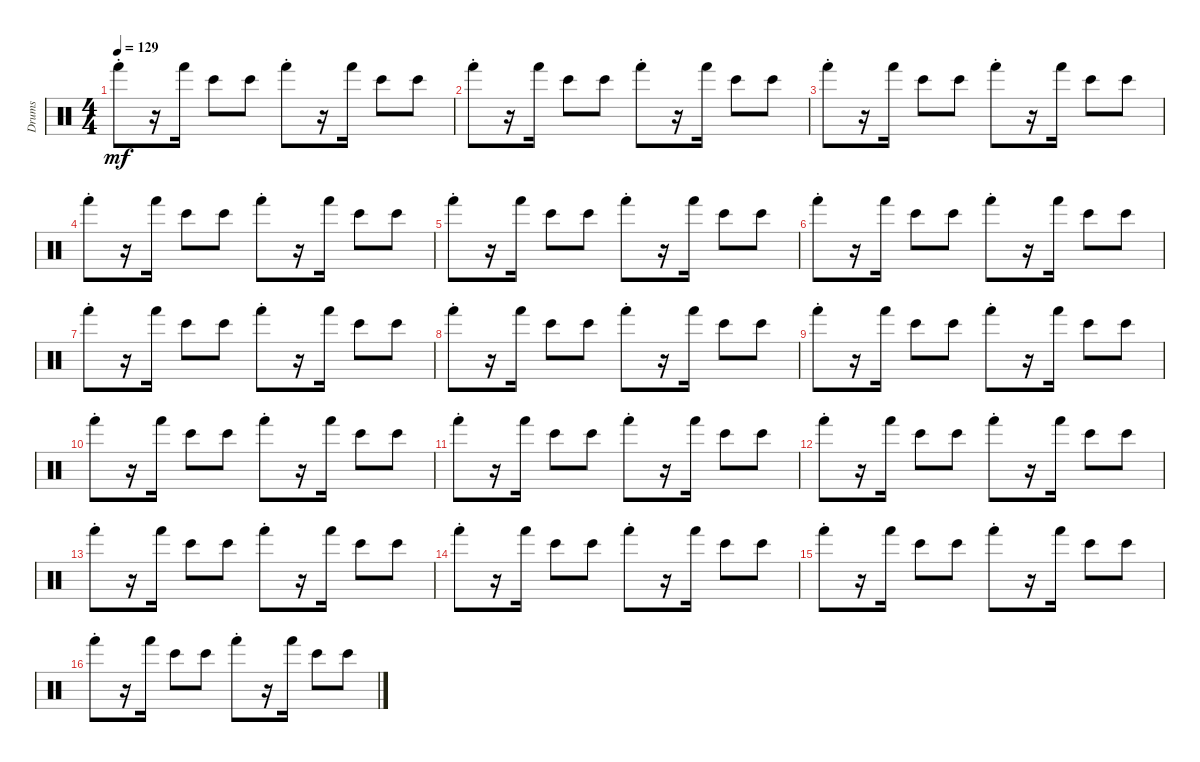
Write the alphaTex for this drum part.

\track ("Drums" "Drums") {instrument percussion}
\staff {score}
\articulation defaults
\ts (4 4)
\tempo 129
\clef neutral
\ks c "Hand (hit)"{st}.8{dy mf}
r.16 "Hand (hit)".16 "Bongo High (hit)".8 "Bongo High (hit)".8 "Hand (hit)"{st}.8 r.16 "Hand (hit)".16 "Bongo High (hit)".8 "Bongo High (hit)".8 |
"Hand (hit)"{st}.8 r.16 "Hand (hit)".16 "Bongo High (hit)".8 "Bongo High (hit)".8 "Hand (hit)"{st}.8 r.16 "Hand (hit)".16 "Bongo High (hit)".8 "Bongo High (hit)".8 |
"Hand (hit)"{st}.8 r.16 "Hand (hit)".16 "Bongo High (hit)".8 "Bongo High (hit)".8 "Hand (hit)"{st}.8 r.16 "Hand (hit)".16 "Bongo High (hit)".8 "Bongo High (hit)".8 |
"Hand (hit)"{st}.8 r.16 "Hand (hit)".16 "Bongo High (hit)".8 "Bongo High (hit)".8 "Hand (hit)"{st}.8 r.16 "Hand (hit)".16 "Bongo High (hit)".8 "Bongo High (hit)".8 |
"Hand (hit)"{st}.8 r.16 "Hand (hit)".16 "Bongo High (hit)".8 "Bongo High (hit)".8 "Hand (hit)"{st}.8 r.16 "Hand (hit)".16 "Bongo High (hit)".8 "Bongo High (hit)".8 |
"Hand (hit)"{st}.8 r.16 "Hand (hit)".16 "Bongo High (hit)".8 "Bongo High (hit)".8 "Hand (hit)"{st}.8 r.16 "Hand (hit)".16 "Bongo High (hit)".8 "Bongo High (hit)".8 |
"Hand (hit)"{st}.8 r.16 "Hand (hit)".16 "Bongo High (hit)".8 "Bongo High (hit)".8 "Hand (hit)"{st}.8 r.16 "Hand (hit)".16 "Bongo High (hit)".8 "Bongo High (hit)".8 |
"Hand (hit)"{st}.8 r.16 "Hand (hit)".16 "Bongo High (hit)".8 "Bongo High (hit)".8 "Hand (hit)"{st}.8 r.16 "Hand (hit)".16 "Bongo High (hit)".8 "Bongo High (hit)".8 |
"Hand (hit)"{st}.8 r.16 "Hand (hit)".16 "Bongo High (hit)".8 "Bongo High (hit)".8 "Hand (hit)"{st}.8 r.16 "Hand (hit)".16 "Bongo High (hit)".8 "Bongo High (hit)".8 |
"Hand (hit)"{st}.8 r.16 "Hand (hit)".16 "Bongo High (hit)".8 "Bongo High (hit)".8 "Hand (hit)"{st}.8 r.16 "Hand (hit)".16 "Bongo High (hit)".8 "Bongo High (hit)".8 |
"Hand (hit)"{st}.8 r.16 "Hand (hit)".16 "Bongo High (hit)".8 "Bongo High (hit)".8 "Hand (hit)"{st}.8 r.16 "Hand (hit)".16 "Bongo High (hit)".8 "Bongo High (hit)".8 |
"Hand (hit)"{st}.8 r.16 "Hand (hit)".16 "Bongo High (hit)".8 "Bongo High (hit)".8 "Hand (hit)"{st}.8 r.16 "Hand (hit)".16 "Bongo High (hit)".8 "Bongo High (hit)".8 |
"Hand (hit)"{st}.8 r.16 "Hand (hit)".16 "Bongo High (hit)".8 "Bongo High (hit)".8 "Hand (hit)"{st}.8 r.16 "Hand (hit)".16 "Bongo High (hit)".8 "Bongo High (hit)".8 |
"Hand (hit)"{st}.8 r.16 "Hand (hit)".16 "Bongo High (hit)".8 "Bongo High (hit)".8 "Hand (hit)"{st}.8 r.16 "Hand (hit)".16 "Bongo High (hit)".8 "Bongo High (hit)".8 |
"Hand (hit)"{st}.8 r.16 "Hand (hit)".16 "Bongo High (hit)".8 "Bongo High (hit)".8 "Hand (hit)"{st}.8 r.16 "Hand (hit)".16 "Bongo High (hit)".8 "Bongo High (hit)".8 |
"Hand (hit)"{st}.8 r.16 "Hand (hit)".16 "Bongo High (hit)".8 "Bongo High (hit)".8 "Hand (hit)"{st}.8 r.16 "Hand (hit)".16 "Bongo High (hit)".8 "Bongo High (hit)".8
